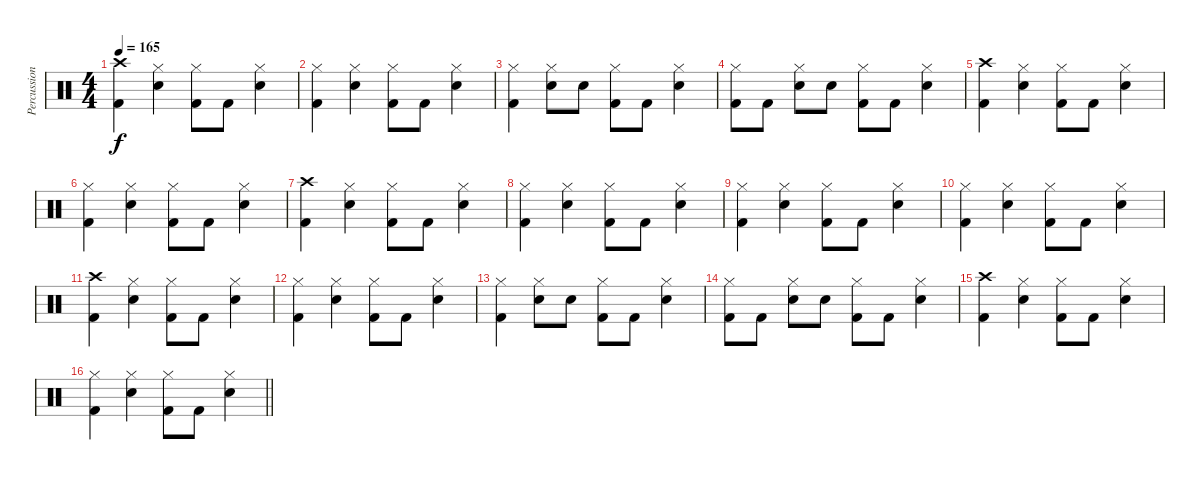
\track ("Percussions" "Percussion") {instrument percussion}
\staff {score}
\articulation defaults
\ts (4 4)
\tempo 165
\clef neutral
\ks c
("Crash high (hit)" "Kick (hit) 2").4{dy f} ("Hi-Hat (closed)" "Electric Snare (hit)").4 ("Hi-Hat (closed)" "Kick (hit) 2").8 "Kick (hit) 2".8 ("Hi-Hat (closed)" "Electric Snare (hit)").4 |
("Hi-Hat (closed)" "Kick (hit) 2").4 ("Hi-Hat (closed)" "Electric Snare (hit)").4 ("Hi-Hat (closed)" "Kick (hit) 2").8 "Kick (hit) 2".8 ("Hi-Hat (closed)" "Electric Snare (hit)").4 |
("Hi-Hat (closed)" "Kick (hit) 2").4 ("Hi-Hat (closed)" "Electric Snare (hit)").8 "Electric Snare (hit)".8 ("Hi-Hat (closed)" "Kick (hit) 2").8 "Kick (hit) 2".8 ("Hi-Hat (closed)" "Electric Snare (hit)").4 |
("Hi-Hat (closed)" "Kick (hit) 2").8 "Kick (hit) 2".8 ("Hi-Hat (closed)" "Electric Snare (hit)").8 "Electric Snare (hit)".8 ("Hi-Hat (closed)" "Kick (hit) 2").8 "Kick (hit) 2".8 ("Hi-Hat (closed)" "Electric Snare (hit)").4 |
("Crash high (hit)" "Kick (hit) 2").4 ("Hi-Hat (closed)" "Electric Snare (hit)").4 ("Hi-Hat (closed)" "Kick (hit) 2").8 "Kick (hit) 2".8 ("Hi-Hat (closed)" "Electric Snare (hit)").4 |
("Hi-Hat (closed)" "Kick (hit) 2").4 ("Hi-Hat (closed)" "Electric Snare (hit)").4 ("Hi-Hat (closed)" "Kick (hit) 2").8 "Kick (hit) 2".8 ("Hi-Hat (closed)" "Electric Snare (hit)").4 |
("Crash high (hit)" "Kick (hit) 2").4 ("Hi-Hat (closed)" "Electric Snare (hit)").4 ("Hi-Hat (closed)" "Kick (hit) 2").8 "Kick (hit) 2".8 ("Hi-Hat (closed)" "Electric Snare (hit)").4 |
("Hi-Hat (closed)" "Kick (hit) 2").4 ("Hi-Hat (closed)" "Electric Snare (hit)").4 ("Hi-Hat (closed)" "Kick (hit) 2").8 "Kick (hit) 2".8 ("Hi-Hat (closed)" "Electric Snare (hit)").4 |
("Hi-Hat (closed)" "Kick (hit) 2").4 ("Hi-Hat (closed)" "Electric Snare (hit)").4 ("Hi-Hat (closed)" "Kick (hit) 2").8 "Kick (hit) 2".8 ("Hi-Hat (closed)" "Electric Snare (hit)").4 |
("Hi-Hat (closed)" "Kick (hit) 2").4 ("Hi-Hat (closed)" "Electric Snare (hit)").4 ("Hi-Hat (closed)" "Kick (hit) 2").8 "Kick (hit) 2".8 ("Hi-Hat (closed)" "Electric Snare (hit)").4 |
("Crash high (hit)" "Kick (hit) 2").4 ("Hi-Hat (closed)" "Electric Snare (hit)").4 ("Hi-Hat (closed)" "Kick (hit) 2").8 "Kick (hit) 2".8 ("Hi-Hat (closed)" "Electric Snare (hit)").4 |
("Hi-Hat (closed)" "Kick (hit) 2").4 ("Hi-Hat (closed)" "Electric Snare (hit)").4 ("Hi-Hat (closed)" "Kick (hit) 2").8 "Kick (hit) 2".8 ("Hi-Hat (closed)" "Electric Snare (hit)").4 |
("Hi-Hat (closed)" "Kick (hit) 2").4 ("Hi-Hat (closed)" "Electric Snare (hit)").8 "Electric Snare (hit)".8 ("Hi-Hat (closed)" "Kick (hit) 2").8 "Kick (hit) 2".8 ("Hi-Hat (closed)" "Electric Snare (hit)").4 |
("Hi-Hat (closed)" "Kick (hit) 2").8 "Kick (hit) 2".8 ("Hi-Hat (closed)" "Electric Snare (hit)").8 "Electric Snare (hit)".8 ("Hi-Hat (closed)" "Kick (hit) 2").8 "Kick (hit) 2".8 ("Hi-Hat (closed)" "Electric Snare (hit)").4 |
("Crash high (hit)" "Kick (hit) 2").4 ("Hi-Hat (closed)" "Electric Snare (hit)").4 ("Hi-Hat (closed)" "Kick (hit) 2").8 "Kick (hit) 2".8 ("Hi-Hat (closed)" "Electric Snare (hit)").4 |
\barLineRight lightlight
("Hi-Hat (closed)" "Kick (hit) 2").4 ("Hi-Hat (closed)" "Electric Snare (hit)").4 ("Hi-Hat (closed)" "Kick (hit) 2").8 "Kick (hit) 2".8 ("Hi-Hat (closed)" "Electric Snare (hit)").4
